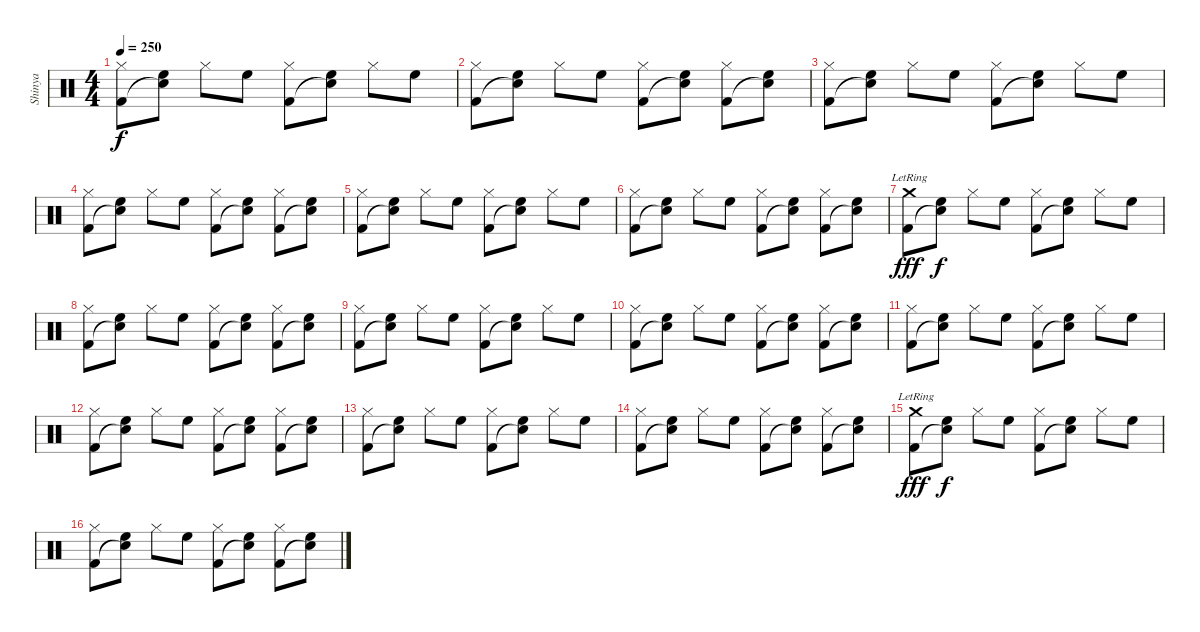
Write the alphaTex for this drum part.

\track ("Shinya" "Shinya") {instrument percussion}
\staff {score}
\articulation defaults
\ts (4 4)
\tempo 250
\clef neutral
\ks c
("Hi-Hat (closed)" "Kick (hit) 2").8{dy f} ("High Floor Tom (hit)" "Snare (hit)"{t}).8 "Hi-Hat (closed)".8 "High Floor Tom (hit)".8 ("Hi-Hat (closed)" "Kick (hit) 2").8 ("High Floor Tom (hit)" "Snare (hit)"{t}).8 "Hi-Hat (closed)".8 "High Floor Tom (hit)".8 |
("Hi-Hat (closed)" "Kick (hit) 2").8 ("High Floor Tom (hit)" "Snare (hit)"{t}).8 "Hi-Hat (closed)".8 "High Floor Tom (hit)".8 ("Hi-Hat (closed)" "Kick (hit) 2").8 ("High Floor Tom (hit)" "Snare (hit)"{t}).8 ("Hi-Hat (closed)" "Kick (hit) 2").8 ("High Floor Tom (hit)" "Snare (hit)"{t}).8 |
("Hi-Hat (closed)" "Kick (hit) 2").8 ("High Floor Tom (hit)" "Snare (hit)"{t}).8 "Hi-Hat (closed)".8 "High Floor Tom (hit)".8 ("Hi-Hat (closed)" "Kick (hit) 2").8 ("High Floor Tom (hit)" "Snare (hit)"{t}).8 "Hi-Hat (closed)".8 "High Floor Tom (hit)".8 |
("Hi-Hat (closed)" "Kick (hit) 2").8 ("High Floor Tom (hit)" "Snare (hit)"{t}).8 "Hi-Hat (closed)".8 "High Floor Tom (hit)".8 ("Hi-Hat (closed)" "Kick (hit) 2").8 ("High Floor Tom (hit)" "Snare (hit)"{t}).8 ("Hi-Hat (closed)" "Kick (hit) 2").8 ("High Floor Tom (hit)" "Snare (hit)"{t}).8 |
("Hi-Hat (closed)" "Kick (hit) 2").8 ("High Floor Tom (hit)" "Snare (hit)"{t}).8 "Hi-Hat (closed)".8 "High Floor Tom (hit)".8 ("Hi-Hat (closed)" "Kick (hit) 2").8 ("High Floor Tom (hit)" "Snare (hit)"{t}).8 "Hi-Hat (closed)".8 "High Floor Tom (hit)".8 |
("Hi-Hat (closed)" "Kick (hit) 2").8 ("High Floor Tom (hit)" "Snare (hit)"{t}).8 "Hi-Hat (closed)".8 "High Floor Tom (hit)".8 ("Hi-Hat (closed)" "Kick (hit) 2").8 ("High Floor Tom (hit)" "Snare (hit)"{t}).8 ("Hi-Hat (closed)" "Kick (hit) 2").8 ("High Floor Tom (hit)" "Snare (hit)"{t}).8 |
("Crash medium (hit)"{lr} "Kick (hit) 2").8{dy fff} ("High Floor Tom (hit)" "Snare (hit)"{t}).8{dy f} "Hi-Hat (closed)".8 "High Floor Tom (hit)".8 ("Hi-Hat (closed)" "Kick (hit) 2").8 ("High Floor Tom (hit)" "Snare (hit)"{t}).8 "Hi-Hat (closed)".8 "High Floor Tom (hit)".8 |
("Hi-Hat (closed)" "Kick (hit) 2").8 ("High Floor Tom (hit)" "Snare (hit)"{t}).8 "Hi-Hat (closed)".8 "High Floor Tom (hit)".8 ("Hi-Hat (closed)" "Kick (hit) 2").8 ("High Floor Tom (hit)" "Snare (hit)"{t}).8 ("Hi-Hat (closed)" "Kick (hit) 2").8 ("High Floor Tom (hit)" "Snare (hit)"{t}).8 |
("Hi-Hat (closed)" "Kick (hit) 2").8 ("High Floor Tom (hit)" "Snare (hit)"{t}).8 "Hi-Hat (closed)".8 "High Floor Tom (hit)".8 ("Hi-Hat (closed)" "Kick (hit) 2").8 ("High Floor Tom (hit)" "Snare (hit)"{t}).8 "Hi-Hat (closed)".8 "High Floor Tom (hit)".8 |
("Hi-Hat (closed)" "Kick (hit) 2").8 ("High Floor Tom (hit)" "Snare (hit)"{t}).8 "Hi-Hat (closed)".8 "High Floor Tom (hit)".8 ("Hi-Hat (closed)" "Kick (hit) 2").8 ("High Floor Tom (hit)" "Snare (hit)"{t}).8 ("Hi-Hat (closed)" "Kick (hit) 2").8 ("High Floor Tom (hit)" "Snare (hit)"{t}).8 |
("Hi-Hat (closed)" "Kick (hit) 2").8 ("High Floor Tom (hit)" "Snare (hit)"{t}).8 "Hi-Hat (closed)".8 "High Floor Tom (hit)".8 ("Hi-Hat (closed)" "Kick (hit) 2").8 ("High Floor Tom (hit)" "Snare (hit)"{t}).8 "Hi-Hat (closed)".8 "High Floor Tom (hit)".8 |
("Hi-Hat (closed)" "Kick (hit) 2").8 ("High Floor Tom (hit)" "Snare (hit)"{t}).8 "Hi-Hat (closed)".8 "High Floor Tom (hit)".8 ("Hi-Hat (closed)" "Kick (hit) 2").8 ("High Floor Tom (hit)" "Snare (hit)"{t}).8 ("Hi-Hat (closed)" "Kick (hit) 2").8 ("High Floor Tom (hit)" "Snare (hit)"{t}).8 |
("Hi-Hat (closed)" "Kick (hit) 2").8 ("High Floor Tom (hit)" "Snare (hit)"{t}).8 "Hi-Hat (closed)".8 "High Floor Tom (hit)".8 ("Hi-Hat (closed)" "Kick (hit) 2").8 ("High Floor Tom (hit)" "Snare (hit)"{t}).8 "Hi-Hat (closed)".8 "High Floor Tom (hit)".8 |
("Hi-Hat (closed)" "Kick (hit) 2").8 ("High Floor Tom (hit)" "Snare (hit)"{t}).8 "Hi-Hat (closed)".8 "High Floor Tom (hit)".8 ("Hi-Hat (closed)" "Kick (hit) 2").8 ("High Floor Tom (hit)" "Snare (hit)"{t}).8 ("Hi-Hat (closed)" "Kick (hit) 2").8 ("High Floor Tom (hit)" "Snare (hit)"{t}).8 |
("Crash medium (hit)"{lr} "Kick (hit) 2").8{dy fff} ("High Floor Tom (hit)" "Snare (hit)"{t}).8{dy f} "Hi-Hat (closed)".8 "High Floor Tom (hit)".8 ("Hi-Hat (closed)" "Kick (hit) 2").8 ("High Floor Tom (hit)" "Snare (hit)"{t}).8 "Hi-Hat (closed)".8 "High Floor Tom (hit)".8 |
("Hi-Hat (closed)" "Kick (hit) 2").8 ("High Floor Tom (hit)" "Snare (hit)"{t}).8 "Hi-Hat (closed)".8 "High Floor Tom (hit)".8 ("Hi-Hat (closed)" "Kick (hit) 2").8 ("High Floor Tom (hit)" "Snare (hit)"{t}).8 ("Hi-Hat (closed)" "Kick (hit) 2").8 ("High Floor Tom (hit)" "Snare (hit)"{t}).8
